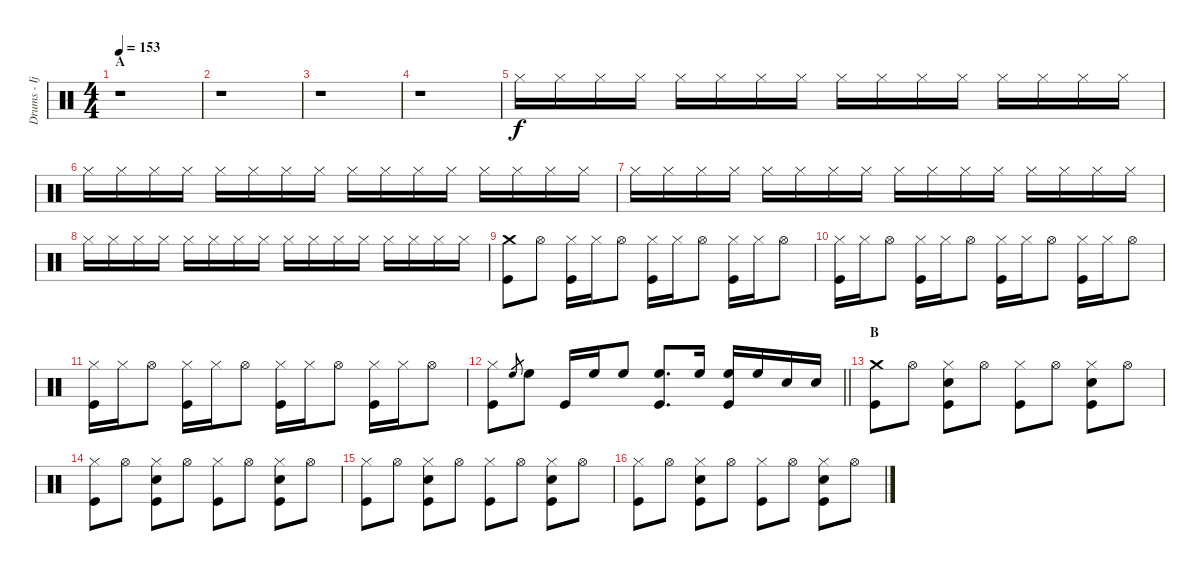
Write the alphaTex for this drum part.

\track ("Drums - Ijichi" "Drums - Ij") {instrument percussion}
\staff {score}
\articulation defaults
\ts (4 4)
\section ("" "A")
\tempo 153
\clef neutral
\ks c
r.1{dy f} |
r.1 |
r.1 |
r.1 |
"Hi-Hat (closed)".16 "Hi-Hat (closed)".16 "Hi-Hat (closed)".16 "Hi-Hat (closed)".16 "Hi-Hat (closed)".16 "Hi-Hat (closed)".16 "Hi-Hat (closed)".16 "Hi-Hat (closed)".16 "Hi-Hat (closed)".16 "Hi-Hat (closed)".16 "Hi-Hat (closed)".16 "Hi-Hat (closed)".16 "Hi-Hat (closed)".16 "Hi-Hat (closed)".16 "Hi-Hat (closed)".16 "Hi-Hat (closed)".16 |
"Hi-Hat (closed)".16 "Hi-Hat (closed)".16 "Hi-Hat (closed)".16 "Hi-Hat (closed)".16 "Hi-Hat (closed)".16 "Hi-Hat (closed)".16 "Hi-Hat (closed)".16 "Hi-Hat (closed)".16 "Hi-Hat (closed)".16 "Hi-Hat (closed)".16 "Hi-Hat (closed)".16 "Hi-Hat (closed)".16 "Hi-Hat (closed)".16 "Hi-Hat (closed)".16 "Hi-Hat (closed)".16 "Hi-Hat (closed)".16 |
"Hi-Hat (closed)".16 "Hi-Hat (closed)".16 "Hi-Hat (closed)".16 "Hi-Hat (closed)".16 "Hi-Hat (closed)".16 "Hi-Hat (closed)".16 "Hi-Hat (closed)".16 "Hi-Hat (closed)".16 "Hi-Hat (closed)".16 "Hi-Hat (closed)".16 "Hi-Hat (closed)".16 "Hi-Hat (closed)".16 "Hi-Hat (closed)".16 "Hi-Hat (closed)".16 "Hi-Hat (closed)".16 "Hi-Hat (closed)".16 |
"Hi-Hat (closed)".16 "Hi-Hat (closed)".16 "Hi-Hat (closed)".16 "Hi-Hat (closed)".16 "Hi-Hat (closed)".16 "Hi-Hat (closed)".16 "Hi-Hat (closed)".16 "Hi-Hat (closed)".16 "Hi-Hat (closed)".16 "Hi-Hat (closed)".16 "Hi-Hat (closed)".16 "Hi-Hat (closed)".16 "Hi-Hat (closed)".16 "Hi-Hat (closed)".16 "Hi-Hat (closed)".16 "Hi-Hat (closed)".16 |
("Crash medium (hit)" "Kick (hit)").8 "Hi-Hat (open)".8 ("Hi-Hat (closed)" "Kick (hit)").16 "Hi-Hat (closed)".16 "Hi-Hat (open)".8 ("Hi-Hat (closed)" "Kick (hit)").16 "Hi-Hat (closed)".16 "Hi-Hat (open)".8 ("Hi-Hat (closed)" "Kick (hit)").16 "Hi-Hat (closed)".16 "Hi-Hat (open)".8 |
("Hi-Hat (closed)" "Kick (hit)").16 "Hi-Hat (closed)".16 "Hi-Hat (open)".8 ("Hi-Hat (closed)" "Kick (hit)").16 "Hi-Hat (closed)".16 "Hi-Hat (open)".8 ("Hi-Hat (closed)" "Kick (hit)").16 "Hi-Hat (closed)".16 "Hi-Hat (open)".8 ("Hi-Hat (closed)" "Kick (hit)").16 "Hi-Hat (closed)".16 "Hi-Hat (open)".8 |
("Hi-Hat (closed)" "Kick (hit)").16 "Hi-Hat (closed)".16 "Hi-Hat (open)".8 ("Hi-Hat (closed)" "Kick (hit)").16 "Hi-Hat (closed)".16 "Hi-Hat (open)".8 ("Hi-Hat (closed)" "Kick (hit)").16 "Hi-Hat (closed)".16 "Hi-Hat (open)".8 ("Hi-Hat (closed)" "Kick (hit)").16 "Hi-Hat (closed)".16 "Hi-Hat (open)".8 |
\barLineRight lightlight
("Hi-Hat (closed)" "Kick (hit)").8 "High Floor Tom (hit)".8{gr} "High Floor Tom (hit)".8 "Kick (hit)".16 "High Floor Tom (hit)".16 "High Floor Tom (hit)".8 ("High Floor Tom (hit)" "Kick (hit)").8{d} "High Floor Tom (hit)".16 ("High Floor Tom (hit)" "Kick (hit)").16 "High Floor Tom (hit)".16 "Electric Snare (hit)".16 "Electric Snare (hit)".16 |
\section ("" "B")
("Crash medium (hit)" "Kick (hit)").8 "Hi-Hat (open)".8 ("Hi-Hat (closed)" "Electric Snare (hit)" "Kick (hit)").8 "Hi-Hat (open)".8 ("Hi-Hat (closed)" "Kick (hit)").8 "Hi-Hat (open)".8 ("Hi-Hat (closed)" "Electric Snare (hit)" "Kick (hit)").8 "Hi-Hat (open)".8 |
("Hi-Hat (closed)" "Kick (hit)").8 "Hi-Hat (open)".8 ("Hi-Hat (closed)" "Electric Snare (hit)" "Kick (hit)").8 "Hi-Hat (open)".8 ("Hi-Hat (closed)" "Kick (hit)").8 "Hi-Hat (open)".8 ("Hi-Hat (closed)" "Electric Snare (hit)" "Kick (hit)").8 "Hi-Hat (open)".8 |
("Hi-Hat (closed)" "Kick (hit)").8 "Hi-Hat (open)".8 ("Hi-Hat (closed)" "Electric Snare (hit)" "Kick (hit)").8 "Hi-Hat (open)".8 ("Hi-Hat (closed)" "Kick (hit)").8 "Hi-Hat (open)".8 ("Hi-Hat (closed)" "Electric Snare (hit)" "Kick (hit)").8 "Hi-Hat (open)".8 |
("Hi-Hat (closed)" "Kick (hit)").8 "Hi-Hat (open)".8 ("Hi-Hat (closed)" "Electric Snare (hit)" "Kick (hit)").8 "Hi-Hat (open)".8 ("Hi-Hat (closed)" "Kick (hit)").8 "Hi-Hat (open)".8 ("Hi-Hat (closed)" "Electric Snare (hit)" "Kick (hit)").8 "Hi-Hat (open)".8
